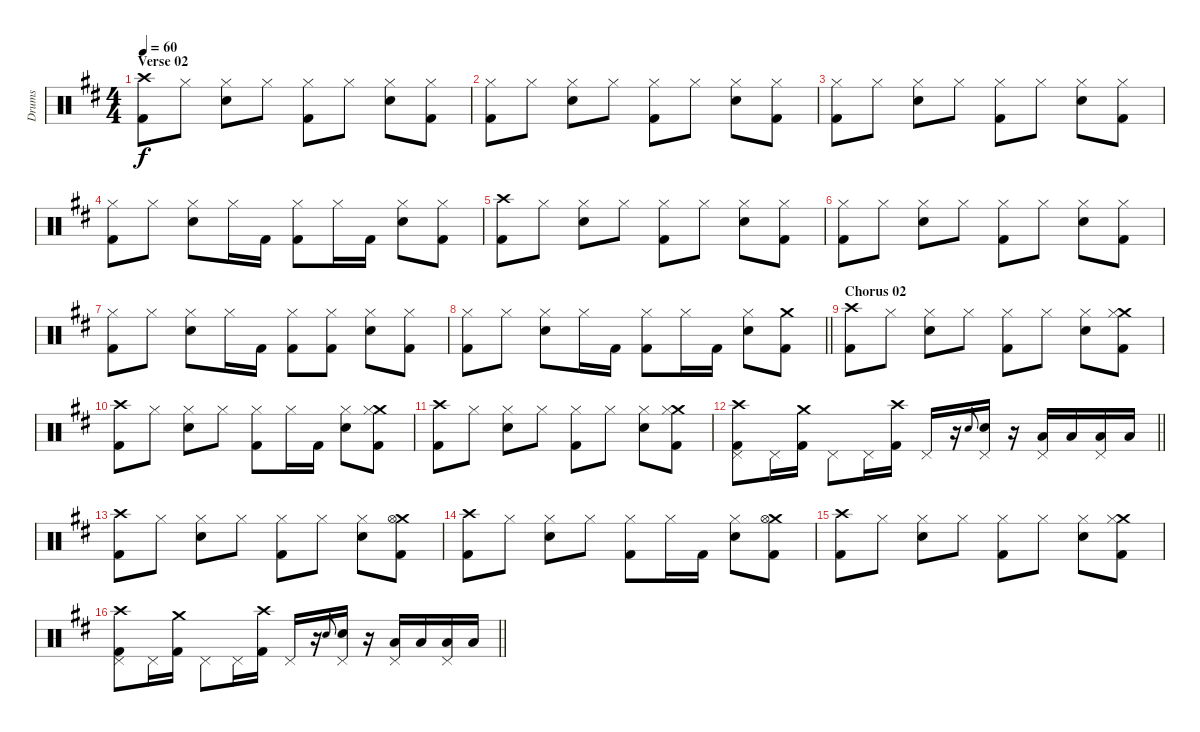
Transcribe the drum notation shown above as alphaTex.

\track ("Drums" "Drums") {instrument percussion}
\staff
\articulation defaults
\ts (4 4)
\section ("" "Verse 02")
\tempo 60
\clef neutral
\ks d
("Crash high (hit)" "Kick (hit) 2").8{dy f} "Hi-Hat (closed)".8 ("Hi-Hat (closed)" "Snare (hit) 2").8 "Hi-Hat (closed)".8 ("Hi-Hat (closed)" "Kick (hit) 2").8 "Hi-Hat (closed)".8 ("Hi-Hat (closed)" "Snare (hit) 2").8 ("Hi-Hat (closed)" "Kick (hit) 2").8 |
("Hi-Hat (closed)" "Kick (hit) 2").8 "Hi-Hat (closed)".8 ("Hi-Hat (closed)" "Snare (hit) 2").8 "Hi-Hat (closed)".8 ("Hi-Hat (closed)" "Kick (hit) 2").8 "Hi-Hat (closed)".8 ("Hi-Hat (closed)" "Snare (hit) 2").8 ("Hi-Hat (closed)" "Kick (hit) 2").8 |
("Hi-Hat (closed)" "Kick (hit) 2").8 "Hi-Hat (closed)".8 ("Hi-Hat (closed)" "Snare (hit) 2").8 "Hi-Hat (closed)".8 ("Hi-Hat (closed)" "Kick (hit) 2").8 "Hi-Hat (closed)".8 ("Hi-Hat (closed)" "Snare (hit) 2").8 ("Hi-Hat (closed)" "Kick (hit) 2").8 |
("Hi-Hat (closed)" "Kick (hit) 2").8 "Hi-Hat (closed)".8 ("Hi-Hat (closed)" "Snare (hit) 2").8 "Hi-Hat (closed)".16 "Kick (hit) 2".16 ("Hi-Hat (closed)" "Kick (hit) 2").8 "Hi-Hat (closed)".16 "Kick (hit) 2".16 ("Hi-Hat (closed)" "Snare (hit) 2").8 ("Hi-Hat (closed)" "Kick (hit) 2").8 |
("Crash high (hit)" "Kick (hit) 2").8 "Hi-Hat (closed)".8 ("Hi-Hat (closed)" "Snare (hit) 2").8 "Hi-Hat (closed)".8 ("Hi-Hat (closed)" "Kick (hit) 2").8 "Hi-Hat (closed)".8 ("Hi-Hat (closed)" "Snare (hit) 2").8 ("Hi-Hat (closed)" "Kick (hit) 2").8 |
("Hi-Hat (closed)" "Kick (hit) 2").8 "Hi-Hat (closed)".8 ("Hi-Hat (closed)" "Snare (hit) 2").8 "Hi-Hat (closed)".8 ("Hi-Hat (closed)" "Kick (hit) 2").8 "Hi-Hat (closed)".8 ("Hi-Hat (closed)" "Snare (hit) 2").8 ("Hi-Hat (closed)" "Kick (hit) 2").8 |
("Hi-Hat (closed)" "Kick (hit) 2").8 "Hi-Hat (closed)".8 ("Hi-Hat (closed)" "Snare (hit) 2").8 "Hi-Hat (closed)".16 "Kick (hit) 2".16 ("Hi-Hat (closed)" "Kick (hit) 2").8 ("Hi-Hat (closed)" "Kick (hit) 2").8 ("Hi-Hat (closed)" "Snare (hit) 2").8 ("Hi-Hat (closed)" "Kick (hit) 2").8 |
\barLineRight lightlight
("Hi-Hat (closed)" "Kick (hit) 2").8 "Hi-Hat (closed)".8 ("Hi-Hat (closed)" "Snare (hit) 2").8 "Hi-Hat (closed)".16 "Kick (hit) 2".16 ("Hi-Hat (closed)" "Kick (hit) 2").8 "Hi-Hat (closed)".16 "Kick (hit) 2".16 ("Hi-Hat (closed)" "Snare (hit) 2").8 ("Crash medium (hit)" "Kick (hit) 2").8 |
\section ("" "Chorus 02")
("Crash high (hit)" "Kick (hit) 2").8 "Hi-Hat (closed)".8 ("Hi-Hat (closed)" "Snare (hit) 2").8 "Hi-Hat (closed)".8 ("Hi-Hat (closed)" "Kick (hit) 2").8 "Hi-Hat (closed)".8 ("Hi-Hat (closed)" "Snare (hit) 2").8 ("Crash medium (hit)" "Hi-Hat (closed)" "Kick (hit) 2").8 |
("Crash high (hit)" "Kick (hit) 2").8 "Hi-Hat (closed)".8 ("Hi-Hat (closed)" "Snare (hit) 2").8 "Hi-Hat (closed)".8 ("Hi-Hat (closed)" "Kick (hit) 2").8 "Hi-Hat (closed)".16 "Kick (hit) 2".16 ("Hi-Hat (closed)" "Snare (hit) 2").8 ("Crash medium (hit)" "Hi-Hat (closed)" "Kick (hit) 2").8 |
("Crash high (hit)" "Kick (hit) 2").8 "Hi-Hat (closed)".8 ("Hi-Hat (closed)" "Snare (hit) 2").8 "Hi-Hat (closed)".8 ("Hi-Hat (closed)" "Kick (hit) 2").8 "Hi-Hat (closed)".8 ("Hi-Hat (closed)" "Snare (hit) 2").8 ("Crash medium (hit)" "Hi-Hat (closed)" "Kick (hit) 2").8 |
\barLineRight lightlight
("Crash high (hit)" "Pedal Hi-Hat (hit)" "Kick (hit) 2").8 "Pedal Hi-Hat (hit)".16 ("Crash medium (hit)" "Kick (hit) 2").16 "Pedal Hi-Hat (hit)".8 "Pedal Hi-Hat (hit)".16 ("Crash high (hit)" "Kick (hit) 2").16 "Pedal Hi-Hat (hit)".16 r.16 "Snare (hit) 2".8{gr onbeat} ("Pedal Hi-Hat (hit)" "Snare (hit) 2").16 r.16 ("Low Tom (hit)" "Pedal Hi-Hat (hit)").16 "Low Tom (hit)".16 ("Low Tom (hit)" "Pedal Hi-Hat (hit)").16 "Low Tom (hit)".16 |
("Crash high (hit)" "Kick (hit) 2").8 "Hi-Hat (closed)".8 ("Hi-Hat (closed)" "Snare (hit) 2").8 "Hi-Hat (closed)".8 ("Hi-Hat (closed)" "Kick (hit) 2").8 "Hi-Hat (closed)".8 ("Hi-Hat (closed)" "Snare (hit) 2").8 ("Crash medium (hit)" "Hi-Hat (open)" "Kick (hit) 2").8 |
("Crash high (hit)" "Kick (hit) 2").8 "Hi-Hat (closed)".8 ("Hi-Hat (closed)" "Snare (hit) 2").8 "Hi-Hat (closed)".8 ("Hi-Hat (closed)" "Kick (hit) 2").8 "Hi-Hat (closed)".16 "Kick (hit) 2".16 ("Hi-Hat (closed)" "Snare (hit) 2").8 ("Crash medium (hit)" "Hi-Hat (open)" "Kick (hit) 2").8 |
("Crash high (hit)" "Kick (hit) 2").8 "Hi-Hat (closed)".8 ("Hi-Hat (closed)" "Snare (hit) 2").8 "Hi-Hat (closed)".8 ("Hi-Hat (closed)" "Kick (hit) 2").8 "Hi-Hat (closed)".8 ("Hi-Hat (closed)" "Snare (hit) 2").8 ("Crash medium (hit)" "Hi-Hat (closed)" "Kick (hit) 2").8 |
\barLineRight lightlight
("Crash high (hit)" "Pedal Hi-Hat (hit)" "Kick (hit) 2").8 "Pedal Hi-Hat (hit)".16 ("Crash medium (hit)" "Kick (hit) 2").16 "Pedal Hi-Hat (hit)".8 "Pedal Hi-Hat (hit)".16 ("Crash high (hit)" "Kick (hit) 2").16 "Pedal Hi-Hat (hit)".16 r.16 "Snare (hit) 2".8{gr onbeat} ("Pedal Hi-Hat (hit)" "Snare (hit) 2").16 r.16 ("Low Tom (hit)" "Pedal Hi-Hat (hit)").16 "Low Tom (hit)".16 ("Low Tom (hit)" "Pedal Hi-Hat (hit)").16 "Low Tom (hit)".16
